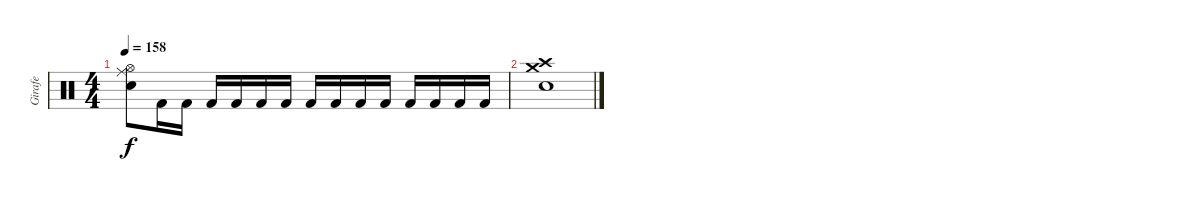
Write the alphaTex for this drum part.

\track ("Girafe" "Girafe") {instrument percussion}
\staff {score}
\articulation defaults
\ts (4 4)
\tempo 158
\clef neutral
\ks c
("Electric Snare (hit)" "Hi-Hat (open)" "Ride (middle)").8{dy f} "Kick (hit) 2".16 "Kick (hit) 2".16 "Kick (hit) 2".16 "Kick (hit) 2".16 "Kick (hit) 2".16 "Kick (hit) 2".16 "Kick (hit) 2".16 "Kick (hit) 2".16 "Kick (hit) 2".16 "Kick (hit) 2".16 "Kick (hit) 2".16 "Kick (hit) 2".16 "Kick (hit) 2".16 "Kick (hit) 2".16 |
("Crash high (hit)" "Crash medium (hit)" "Electric Snare (hit)").1
